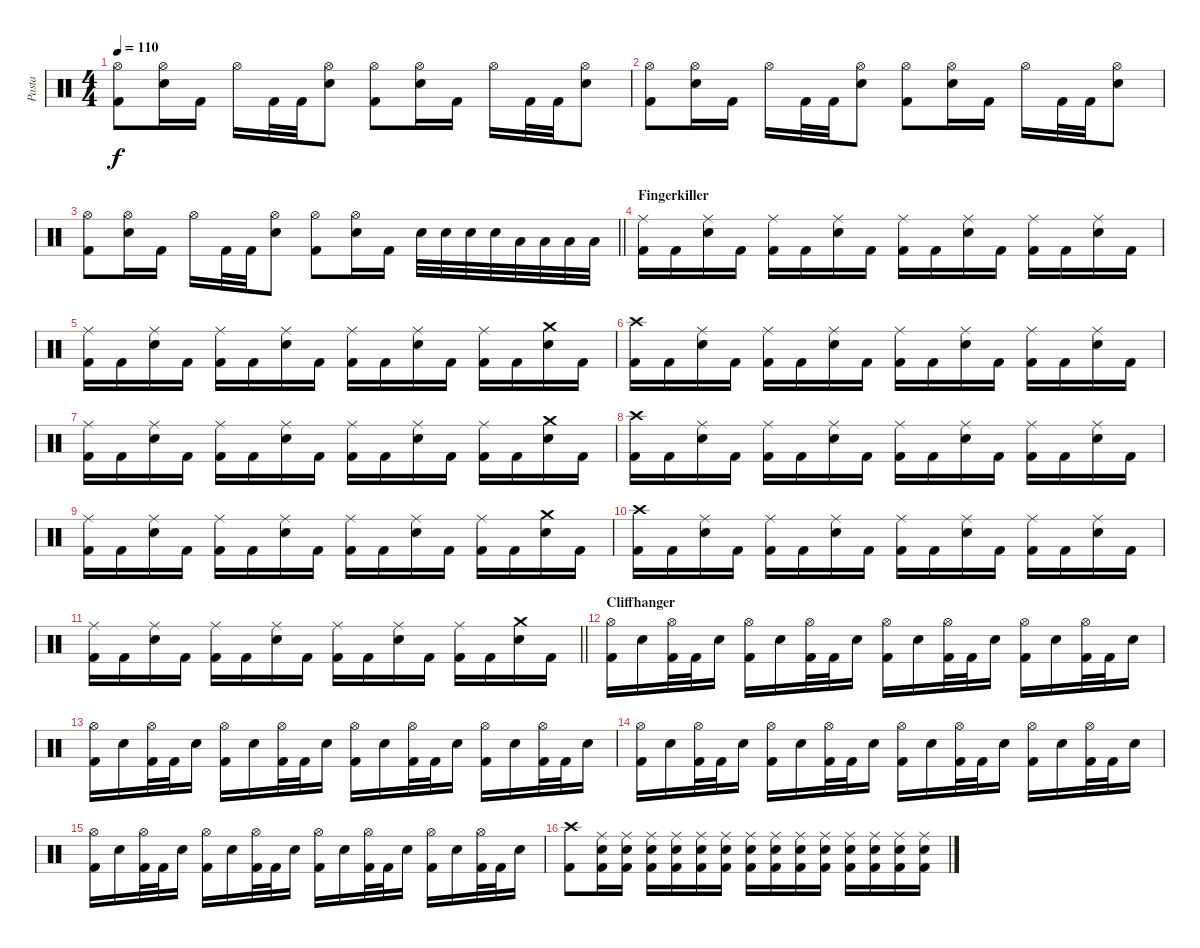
\track ("Pasta" "Pasta") {instrument percussion}
\staff {score}
\articulation defaults
\ts (4 4)
\tempo 110
\clef neutral
\ks c
("Hi-Hat (open)" "Kick (hit) 2").8{dy f} ("Hi-Hat (open)" "Electric Snare (hit)").16 "Kick (hit) 2".16 "Hi-Hat (open)".16 "Kick (hit) 2".32 "Kick (hit) 2".32 ("Hi-Hat (open)" "Electric Snare (hit)").8 ("Hi-Hat (open)" "Kick (hit) 2").8 ("Hi-Hat (open)" "Electric Snare (hit)").16 "Kick (hit) 2".16 "Hi-Hat (open)".16 "Kick (hit) 2".32 "Kick (hit) 2".32 ("Hi-Hat (open)" "Electric Snare (hit)").8 |
("Hi-Hat (open)" "Kick (hit) 2").8 ("Hi-Hat (open)" "Electric Snare (hit)").16 "Kick (hit) 2".16 "Hi-Hat (open)".16 "Kick (hit) 2".32 "Kick (hit) 2".32 ("Hi-Hat (open)" "Electric Snare (hit)").8 ("Hi-Hat (open)" "Kick (hit) 2").8 ("Hi-Hat (open)" "Electric Snare (hit)").16 "Kick (hit) 2".16 "Hi-Hat (open)".16 "Kick (hit) 2".32 "Kick (hit) 2".32 ("Hi-Hat (open)" "Electric Snare (hit)").8 |
\barLineRight lightlight
("Hi-Hat (open)" "Kick (hit) 2").8 ("Hi-Hat (open)" "Electric Snare (hit)").16 "Kick (hit) 2".16 "Hi-Hat (open)".16 "Kick (hit) 2".32 "Kick (hit) 2".32 ("Hi-Hat (open)" "Electric Snare (hit)").8 ("Hi-Hat (open)" "Kick (hit) 2").8 ("Hi-Hat (open)" "Electric Snare (hit)").16 "Kick (hit) 2".16 "Electric Snare (hit)".32 "Electric Snare (hit)".32 "Electric Snare (hit)".32 "Electric Snare (hit)".32 "Low Tom (hit)".32 "Low Tom (hit)".32 "Low Tom (hit)".32 "Low Tom (hit)".32 |
\section ("" "Fingerkiller")
("Ride (middle)" "Kick (hit) 2").16 "Kick (hit) 2".16 ("Ride (middle)" "Electric Snare (hit)").16 "Kick (hit) 2".16 ("Ride (middle)" "Kick (hit) 2").16 "Kick (hit) 2".16 ("Ride (middle)" "Electric Snare (hit)").16 "Kick (hit) 2".16 ("Ride (middle)" "Kick (hit) 2").16 "Kick (hit) 2".16 ("Ride (middle)" "Electric Snare (hit)").16 "Kick (hit) 2".16 ("Ride (middle)" "Kick (hit) 2").16 "Kick (hit) 2".16 ("Ride (middle)" "Electric Snare (hit)").16 "Kick (hit) 2".16 |
("Ride (middle)" "Kick (hit) 2").16 "Kick (hit) 2".16 ("Ride (middle)" "Electric Snare (hit)").16 "Kick (hit) 2".16 ("Ride (middle)" "Kick (hit) 2").16 "Kick (hit) 2".16 ("Ride (middle)" "Electric Snare (hit)").16 "Kick (hit) 2".16 ("Ride (middle)" "Kick (hit) 2").16 "Kick (hit) 2".16 ("Ride (middle)" "Electric Snare (hit)").16 "Kick (hit) 2".16 ("Ride (middle)" "Kick (hit) 2").16 "Kick (hit) 2".16 ("Crash medium (hit)" "Electric Snare (hit)").16 "Kick (hit) 2".16 |
("Crash high (hit)" "Kick (hit) 2").16 "Kick (hit) 2".16 ("Ride (middle)" "Electric Snare (hit)").16 "Kick (hit) 2".16 ("Ride (middle)" "Kick (hit) 2").16 "Kick (hit) 2".16 ("Ride (middle)" "Electric Snare (hit)").16 "Kick (hit) 2".16 ("Ride (middle)" "Kick (hit) 2").16 "Kick (hit) 2".16 ("Ride (middle)" "Electric Snare (hit)").16 "Kick (hit) 2".16 ("Ride (middle)" "Kick (hit) 2").16 "Kick (hit) 2".16 ("Ride (middle)" "Electric Snare (hit)").16 "Kick (hit) 2".16 |
("Ride (middle)" "Kick (hit) 2").16 "Kick (hit) 2".16 ("Ride (middle)" "Electric Snare (hit)").16 "Kick (hit) 2".16 ("Ride (middle)" "Kick (hit) 2").16 "Kick (hit) 2".16 ("Ride (middle)" "Electric Snare (hit)").16 "Kick (hit) 2".16 ("Ride (middle)" "Kick (hit) 2").16 "Kick (hit) 2".16 ("Ride (middle)" "Electric Snare (hit)").16 "Kick (hit) 2".16 ("Ride (middle)" "Kick (hit) 2").16 "Kick (hit) 2".16 ("Crash medium (hit)" "Electric Snare (hit)").16 "Kick (hit) 2".16 |
("Crash high (hit)" "Kick (hit) 2").16 "Kick (hit) 2".16 ("Ride (middle)" "Electric Snare (hit)").16 "Kick (hit) 2".16 ("Ride (middle)" "Kick (hit) 2").16 "Kick (hit) 2".16 ("Ride (middle)" "Electric Snare (hit)").16 "Kick (hit) 2".16 ("Ride (middle)" "Kick (hit) 2").16 "Kick (hit) 2".16 ("Ride (middle)" "Electric Snare (hit)").16 "Kick (hit) 2".16 ("Ride (middle)" "Kick (hit) 2").16 "Kick (hit) 2".16 ("Ride (middle)" "Electric Snare (hit)").16 "Kick (hit) 2".16 |
("Ride (middle)" "Kick (hit) 2").16 "Kick (hit) 2".16 ("Ride (middle)" "Electric Snare (hit)").16 "Kick (hit) 2".16 ("Ride (middle)" "Kick (hit) 2").16 "Kick (hit) 2".16 ("Ride (middle)" "Electric Snare (hit)").16 "Kick (hit) 2".16 ("Ride (middle)" "Kick (hit) 2").16 "Kick (hit) 2".16 ("Ride (middle)" "Electric Snare (hit)").16 "Kick (hit) 2".16 ("Ride (middle)" "Kick (hit) 2").16 "Kick (hit) 2".16 ("Crash medium (hit)" "Electric Snare (hit)").16 "Kick (hit) 2".16 |
("Crash high (hit)" "Kick (hit) 2").16 "Kick (hit) 2".16 ("Ride (middle)" "Electric Snare (hit)").16 "Kick (hit) 2".16 ("Ride (middle)" "Kick (hit) 2").16 "Kick (hit) 2".16 ("Ride (middle)" "Electric Snare (hit)").16 "Kick (hit) 2".16 ("Ride (middle)" "Kick (hit) 2").16 "Kick (hit) 2".16 ("Ride (middle)" "Electric Snare (hit)").16 "Kick (hit) 2".16 ("Ride (middle)" "Kick (hit) 2").16 "Kick (hit) 2".16 ("Ride (middle)" "Electric Snare (hit)").16 "Kick (hit) 2".16 |
\barLineRight lightlight
("Ride (middle)" "Kick (hit) 2").16 "Kick (hit) 2".16 ("Ride (middle)" "Electric Snare (hit)").16 "Kick (hit) 2".16 ("Ride (middle)" "Kick (hit) 2").16 "Kick (hit) 2".16 ("Ride (middle)" "Electric Snare (hit)").16 "Kick (hit) 2".16 ("Ride (middle)" "Kick (hit) 2").16 "Kick (hit) 2".16 ("Ride (middle)" "Electric Snare (hit)").16 "Kick (hit) 2".16 ("Ride (middle)" "Kick (hit) 2").16 "Kick (hit) 2".16 ("Crash medium (hit)" "Electric Snare (hit)").16 "Kick (hit) 2".16 |
\section ("" "Cliffhanger")
("Hi-Hat (open)" "Kick (hit) 2").16 "Electric Snare (hit)".16 ("Hi-Hat (open)" "Kick (hit) 2").32 "Kick (hit) 2".32 "Electric Snare (hit)".16 ("Hi-Hat (open)" "Kick (hit) 2").16 "Electric Snare (hit)".16 ("Hi-Hat (open)" "Kick (hit) 2").32 "Kick (hit) 2".32 "Electric Snare (hit)".16 ("Hi-Hat (open)" "Kick (hit) 2").16 "Electric Snare (hit)".16 ("Hi-Hat (open)" "Kick (hit) 2").32 "Kick (hit) 2".32 "Electric Snare (hit)".16 ("Hi-Hat (open)" "Kick (hit) 2").16 "Electric Snare (hit)".16 ("Hi-Hat (open)" "Kick (hit) 2").32 "Kick (hit) 2".32 "Electric Snare (hit)".16 |
("Hi-Hat (open)" "Kick (hit) 2").16 "Electric Snare (hit)".16 ("Hi-Hat (open)" "Kick (hit) 2").32 "Kick (hit) 2".32 "Electric Snare (hit)".16 ("Hi-Hat (open)" "Kick (hit) 2").16 "Electric Snare (hit)".16 ("Hi-Hat (open)" "Kick (hit) 2").32 "Kick (hit) 2".32 "Electric Snare (hit)".16 ("Hi-Hat (open)" "Kick (hit) 2").16 "Electric Snare (hit)".16 ("Hi-Hat (open)" "Kick (hit) 2").32 "Kick (hit) 2".32 "Electric Snare (hit)".16 ("Hi-Hat (open)" "Kick (hit) 2").16 "Electric Snare (hit)".16 ("Hi-Hat (open)" "Kick (hit) 2").32 "Kick (hit) 2".32 "Electric Snare (hit)".16 |
("Hi-Hat (open)" "Kick (hit) 2").16 "Electric Snare (hit)".16 ("Hi-Hat (open)" "Kick (hit) 2").32 "Kick (hit) 2".32 "Electric Snare (hit)".16 ("Hi-Hat (open)" "Kick (hit) 2").16 "Electric Snare (hit)".16 ("Hi-Hat (open)" "Kick (hit) 2").32 "Kick (hit) 2".32 "Electric Snare (hit)".16 ("Hi-Hat (open)" "Kick (hit) 2").16 "Electric Snare (hit)".16 ("Hi-Hat (open)" "Kick (hit) 2").32 "Kick (hit) 2".32 "Electric Snare (hit)".16 ("Hi-Hat (open)" "Kick (hit) 2").16 "Electric Snare (hit)".16 ("Hi-Hat (open)" "Kick (hit) 2").32 "Kick (hit) 2".32 "Electric Snare (hit)".16 |
("Hi-Hat (open)" "Kick (hit) 2").16 "Electric Snare (hit)".16 ("Hi-Hat (open)" "Kick (hit) 2").32 "Kick (hit) 2".32 "Electric Snare (hit)".16 ("Hi-Hat (open)" "Kick (hit) 2").16 "Electric Snare (hit)".16 ("Hi-Hat (open)" "Kick (hit) 2").32 "Kick (hit) 2".32 "Electric Snare (hit)".16 ("Hi-Hat (open)" "Kick (hit) 2").16 "Electric Snare (hit)".16 ("Hi-Hat (open)" "Kick (hit) 2").32 "Kick (hit) 2".32 "Electric Snare (hit)".16 ("Hi-Hat (open)" "Kick (hit) 2").16 "Electric Snare (hit)".16 ("Hi-Hat (open)" "Kick (hit) 2").32 "Kick (hit) 2".32 "Electric Snare (hit)".16 |
("Crash high (hit)" "Kick (hit) 2").8 ("Ride (middle)" "Electric Snare (hit)" "Kick (hit) 2").16 ("Ride (middle)" "Electric Snare (hit)" "Kick (hit) 2").16 ("Ride (middle)" "Electric Snare (hit)" "Kick (hit) 2").16 ("Ride (middle)" "Electric Snare (hit)" "Kick (hit) 2").16 ("Ride (middle)" "Electric Snare (hit)" "Kick (hit) 2").16 ("Ride (middle)" "Electric Snare (hit)" "Kick (hit) 2").16 ("Ride (middle)" "Electric Snare (hit)" "Kick (hit) 2").16 ("Ride (middle)" "Electric Snare (hit)" "Kick (hit) 2").16 ("Ride (middle)" "Electric Snare (hit)" "Kick (hit) 2").16 ("Ride (middle)" "Electric Snare (hit)" "Kick (hit) 2").16 ("Ride (middle)" "Electric Snare (hit)" "Kick (hit) 2").16 ("Ride (middle)" "Electric Snare (hit)" "Kick (hit) 2").16 ("Ride (middle)" "Electric Snare (hit)" "Kick (hit) 2").16 ("Ride (middle)" "Electric Snare (hit)" "Kick (hit) 2").16
